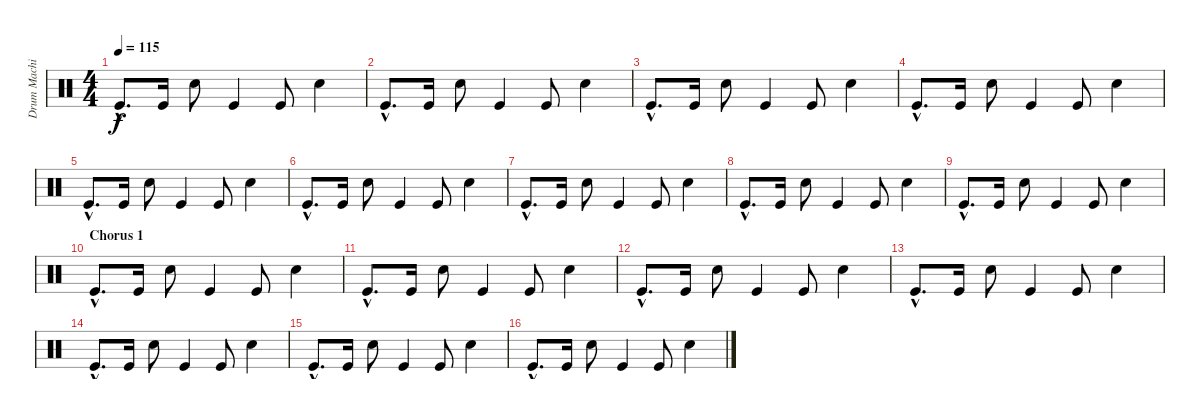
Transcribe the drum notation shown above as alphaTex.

\track ("Drum Machine" "Drum Machi") {instrument percussion}
\staff {score}
\articulation defaults
\ts (4 4)
\tempo 115
\clef neutral
\ks c "Kick (hit)"{hac}.8{d dy f} "Kick (hit)".16 "Snare (hit) 2".8 "Kick (hit)".4 "Kick (hit)".8 "Snare (hit) 2".4
|
"Kick (hit)"{hac}.8{d} "Kick (hit)".16 "Snare (hit) 2".8 "Kick (hit)".4 "Kick (hit)".8 "Snare (hit) 2".4 |
"Kick (hit)"{hac}.8{d} "Kick (hit)".16 "Snare (hit) 2".8 "Kick (hit)".4 "Kick (hit)".8 "Snare (hit) 2".4 |
"Kick (hit)"{hac}.8{d} "Kick (hit)".16 "Snare (hit) 2".8 "Kick (hit)".4 "Kick (hit)".8 "Snare (hit) 2".4 |
"Kick (hit)"{hac}.8{d} "Kick (hit)".16 "Snare (hit) 2".8 "Kick (hit)".4 "Kick (hit)".8 "Snare (hit) 2".4 |
"Kick (hit)"{hac}.8{d} "Kick (hit)".16 "Snare (hit) 2".8 "Kick (hit)".4 "Kick (hit)".8 "Snare (hit) 2".4 |
"Kick (hit)"{hac}.8{d} "Kick (hit)".16 "Snare (hit) 2".8 "Kick (hit)".4 "Kick (hit)".8 "Snare (hit) 2".4 |
"Kick (hit)"{hac}.8{d} "Kick (hit)".16 "Snare (hit) 2".8 "Kick (hit)".4 "Kick (hit)".8 "Snare (hit) 2".4 |
"Kick (hit)"{hac}.8{d} "Kick (hit)".16 "Snare (hit) 2".8 "Kick (hit)".4 "Kick (hit)".8 "Snare (hit) 2".4 |
\section ("" "Chorus 1")
"Kick (hit)"{hac}.8{d} "Kick (hit)".16 "Snare (hit) 2".8 "Kick (hit)".4 "Kick (hit)".8 "Snare (hit) 2".4 |
"Kick (hit)"{hac}.8{d} "Kick (hit)".16 "Snare (hit) 2".8 "Kick (hit)".4 "Kick (hit)".8 "Snare (hit) 2".4 |
"Kick (hit)"{hac}.8{d} "Kick (hit)".16 "Snare (hit) 2".8 "Kick (hit)".4 "Kick (hit)".8 "Snare (hit) 2".4 |
"Kick (hit)"{hac}.8{d} "Kick (hit)".16 "Snare (hit) 2".8 "Kick (hit)".4 "Kick (hit)".8 "Snare (hit) 2".4 |
"Kick (hit)"{hac}.8{d} "Kick (hit)".16 "Snare (hit) 2".8 "Kick (hit)".4 "Kick (hit)".8 "Snare (hit) 2".4 |
"Kick (hit)"{hac}.8{d} "Kick (hit)".16 "Snare (hit) 2".8 "Kick (hit)".4 "Kick (hit)".8 "Snare (hit) 2".4 |
"Kick (hit)"{hac}.8{d} "Kick (hit)".16 "Snare (hit) 2".8 "Kick (hit)".4 "Kick (hit)".8 "Snare (hit) 2".4
